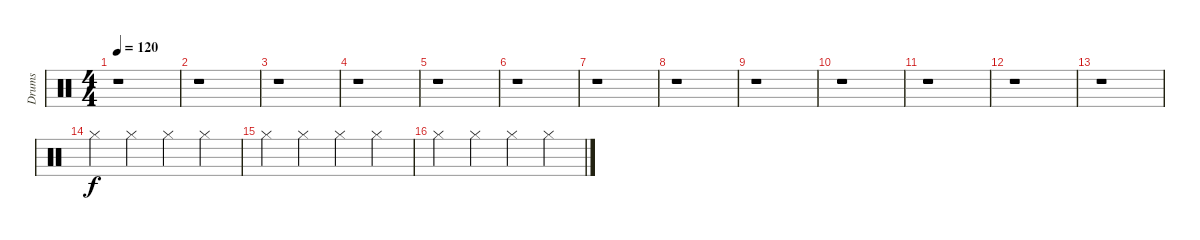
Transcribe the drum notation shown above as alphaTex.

\track ("Drums" "Drums") {instrument percussion}
\staff {score}
\articulation defaults
\ts (4 4)
\tempo 120
\clef neutral
\ks c
r.1{dy f} |
r.1 |
r.1 |
r.1 |
r.1 |
r.1 |
r.1 |
r.1 |
r.1 |
r.1 |
r.1 |
r.1 |
r.1 |
"Hi-Hat (closed)".4{volume 15} "Hi-Hat (closed)".4 "Hi-Hat (closed)".4 "Hi-Hat (closed)".4 |
"Hi-Hat (closed)".4 "Hi-Hat (closed)".4 "Hi-Hat (closed)".4 "Hi-Hat (closed)".4 |
"Hi-Hat (closed)".4 "Hi-Hat (closed)".4 "Hi-Hat (closed)".4 "Hi-Hat (closed)".4
